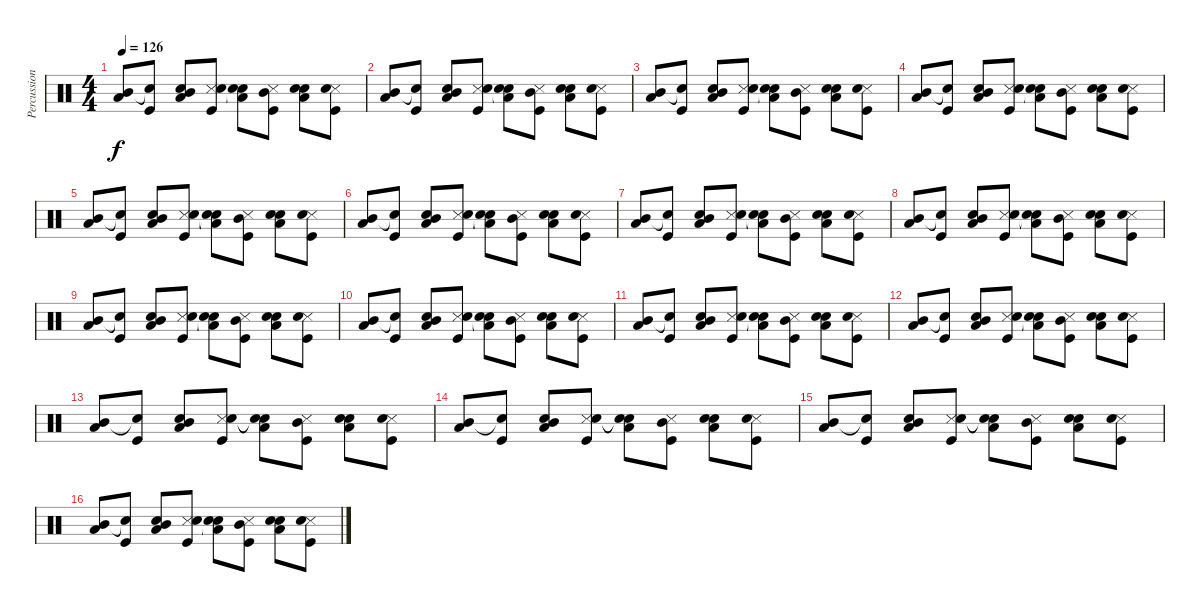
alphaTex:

\track ("Percussions" "Percussion") {instrument percussion}
\staff {score}
\articulation defaults
\ts (4 4)
\tempo 126
\clef neutral
\ks c
("Mid Tom (hit)" "Low Floor Tom (hit)").8{dy f} ("Snare (hit)"{t} "Kick (hit)").8 ("Snare (hit) 2" "Mid Tom (hit)" "Low Floor Tom (hit)").8 ("Snare (side stick) 3" "Electric Snare (hit)" "Kick (hit)").8 ("Snare (hit)"{t} "Snare (hit)"{t} "Low Floor Tom (hit)").8 ("Snare (side stick) 3" "Mid Tom (hit)" "Kick (hit)").8 ("Electric Snare (hit)" "Snare (hit) 2" "Low Floor Tom (hit)").8 ("Snare (side stick) 3" "Snare (hit) 2" "Kick (hit)").8 |
("Mid Tom (hit)" "Low Floor Tom (hit)").8 ("Snare (hit)"{t} "Kick (hit)").8 ("Snare (hit) 2" "Mid Tom (hit)" "Low Floor Tom (hit)").8 ("Snare (side stick) 3" "Electric Snare (hit)" "Kick (hit)").8 ("Snare (hit)"{t} "Snare (hit)"{t} "Low Floor Tom (hit)").8 ("Snare (side stick) 3" "Mid Tom (hit)" "Kick (hit)").8 ("Electric Snare (hit)" "Snare (hit) 2" "Low Floor Tom (hit)").8 ("Snare (side stick) 3" "Snare (hit) 2" "Kick (hit)").8 |
("Mid Tom (hit)" "Low Floor Tom (hit)").8 ("Snare (hit)"{t} "Kick (hit)").8 ("Snare (hit) 2" "Mid Tom (hit)" "Low Floor Tom (hit)").8 ("Snare (side stick) 3" "Electric Snare (hit)" "Kick (hit)").8 ("Snare (hit)"{t} "Snare (hit)"{t} "Low Floor Tom (hit)").8 ("Snare (side stick) 3" "Mid Tom (hit)" "Kick (hit)").8 ("Electric Snare (hit)" "Snare (hit) 2" "Low Floor Tom (hit)").8 ("Snare (side stick) 3" "Snare (hit) 2" "Kick (hit)").8 |
("Mid Tom (hit)" "Low Floor Tom (hit)").8 ("Snare (hit)"{t} "Kick (hit)").8 ("Snare (hit) 2" "Mid Tom (hit)" "Low Floor Tom (hit)").8 ("Snare (side stick) 3" "Electric Snare (hit)" "Kick (hit)").8 ("Snare (hit)"{t} "Snare (hit)"{t} "Low Floor Tom (hit)").8 ("Snare (side stick) 3" "Mid Tom (hit)" "Kick (hit)").8 ("Electric Snare (hit)" "Snare (hit) 2" "Low Floor Tom (hit)").8 ("Snare (side stick) 3" "Snare (hit) 2" "Kick (hit)").8 |
("Mid Tom (hit)" "Low Floor Tom (hit)").8 ("Snare (hit)"{t} "Kick (hit)").8 ("Snare (hit) 2" "Mid Tom (hit)" "Low Floor Tom (hit)").8 ("Snare (side stick) 3" "Electric Snare (hit)" "Kick (hit)").8 ("Snare (hit)"{t} "Snare (hit)"{t} "Low Floor Tom (hit)").8 ("Snare (side stick) 3" "Mid Tom (hit)" "Kick (hit)").8 ("Electric Snare (hit)" "Snare (hit) 2" "Low Floor Tom (hit)").8 ("Snare (side stick) 3" "Snare (hit) 2" "Kick (hit)").8 |
("Mid Tom (hit)" "Low Floor Tom (hit)").8 ("Snare (hit)"{t} "Kick (hit)").8 ("Snare (hit) 2" "Mid Tom (hit)" "Low Floor Tom (hit)").8 ("Snare (side stick) 3" "Electric Snare (hit)" "Kick (hit)").8 ("Snare (hit)"{t} "Snare (hit)"{t} "Low Floor Tom (hit)").8 ("Snare (side stick) 3" "Mid Tom (hit)" "Kick (hit)").8 ("Electric Snare (hit)" "Snare (hit) 2" "Low Floor Tom (hit)").8 ("Snare (side stick) 3" "Snare (hit) 2" "Kick (hit)").8 |
("Mid Tom (hit)" "Low Floor Tom (hit)").8 ("Snare (hit)"{t} "Kick (hit)").8 ("Snare (hit) 2" "Mid Tom (hit)" "Low Floor Tom (hit)").8 ("Snare (side stick) 3" "Electric Snare (hit)" "Kick (hit)").8 ("Snare (hit)"{t} "Snare (hit)"{t} "Low Floor Tom (hit)").8 ("Snare (side stick) 3" "Mid Tom (hit)" "Kick (hit)").8 ("Electric Snare (hit)" "Snare (hit) 2" "Low Floor Tom (hit)").8 ("Snare (side stick) 3" "Snare (hit) 2" "Kick (hit)").8 |
("Mid Tom (hit)" "Low Floor Tom (hit)").8 ("Snare (hit)"{t} "Kick (hit)").8 ("Snare (hit) 2" "Mid Tom (hit)" "Low Floor Tom (hit)").8 ("Snare (side stick) 3" "Electric Snare (hit)" "Kick (hit)").8 ("Snare (hit)"{t} "Snare (hit)"{t} "Low Floor Tom (hit)").8 ("Snare (side stick) 3" "Mid Tom (hit)" "Kick (hit)").8 ("Electric Snare (hit)" "Snare (hit) 2" "Low Floor Tom (hit)").8 ("Snare (side stick) 3" "Snare (hit) 2" "Kick (hit)").8 |
("Mid Tom (hit)" "Low Floor Tom (hit)").8 ("Snare (hit)"{t} "Kick (hit)").8 ("Snare (hit) 2" "Mid Tom (hit)" "Low Floor Tom (hit)").8 ("Snare (side stick) 3" "Electric Snare (hit)" "Kick (hit)").8 ("Snare (hit)"{t} "Snare (hit)"{t} "Low Floor Tom (hit)").8 ("Snare (side stick) 3" "Mid Tom (hit)" "Kick (hit)").8 ("Electric Snare (hit)" "Snare (hit) 2" "Low Floor Tom (hit)").8 ("Snare (side stick) 3" "Snare (hit) 2" "Kick (hit)").8 |
("Mid Tom (hit)" "Low Floor Tom (hit)").8 ("Snare (hit)"{t} "Kick (hit)").8 ("Snare (hit) 2" "Mid Tom (hit)" "Low Floor Tom (hit)").8 ("Snare (side stick) 3" "Electric Snare (hit)" "Kick (hit)").8 ("Snare (hit)"{t} "Snare (hit)"{t} "Low Floor Tom (hit)").8 ("Snare (side stick) 3" "Mid Tom (hit)" "Kick (hit)").8 ("Electric Snare (hit)" "Snare (hit) 2" "Low Floor Tom (hit)").8 ("Snare (side stick) 3" "Snare (hit) 2" "Kick (hit)").8 |
("Mid Tom (hit)" "Low Floor Tom (hit)").8 ("Snare (hit)"{t} "Kick (hit)").8 ("Snare (hit) 2" "Mid Tom (hit)" "Low Floor Tom (hit)").8 ("Snare (side stick) 3" "Electric Snare (hit)" "Kick (hit)").8 ("Snare (hit)"{t} "Snare (hit)"{t} "Low Floor Tom (hit)").8 ("Snare (side stick) 3" "Mid Tom (hit)" "Kick (hit)").8 ("Electric Snare (hit)" "Snare (hit) 2" "Low Floor Tom (hit)").8 ("Snare (side stick) 3" "Snare (hit) 2" "Kick (hit)").8 |
("Mid Tom (hit)" "Low Floor Tom (hit)").8 ("Snare (hit)"{t} "Kick (hit)").8 ("Snare (hit) 2" "Mid Tom (hit)" "Low Floor Tom (hit)").8 ("Snare (side stick) 3" "Electric Snare (hit)" "Kick (hit)").8 ("Snare (hit)"{t} "Snare (hit)"{t} "Low Floor Tom (hit)").8 ("Snare (side stick) 3" "Mid Tom (hit)" "Kick (hit)").8 ("Electric Snare (hit)" "Snare (hit) 2" "Low Floor Tom (hit)").8 ("Snare (side stick) 3" "Snare (hit) 2" "Kick (hit)").8 |
("Mid Tom (hit)" "Low Floor Tom (hit)").8 ("Snare (hit)"{t} "Kick (hit)").8 ("Snare (hit) 2" "Mid Tom (hit)" "Low Floor Tom (hit)").8 ("Snare (side stick) 3" "Electric Snare (hit)" "Kick (hit)").8 ("Snare (hit)"{t} "Snare (hit)"{t} "Low Floor Tom (hit)").8 ("Snare (side stick) 3" "Mid Tom (hit)" "Kick (hit)").8 ("Electric Snare (hit)" "Snare (hit) 2" "Low Floor Tom (hit)").8 ("Snare (side stick) 3" "Snare (hit) 2" "Kick (hit)").8 |
("Mid Tom (hit)" "Low Floor Tom (hit)").8 ("Snare (hit)"{t} "Kick (hit)").8 ("Snare (hit) 2" "Mid Tom (hit)" "Low Floor Tom (hit)").8 ("Snare (side stick) 3" "Electric Snare (hit)" "Kick (hit)").8 ("Snare (hit)"{t} "Snare (hit)"{t} "Low Floor Tom (hit)").8 ("Snare (side stick) 3" "Mid Tom (hit)" "Kick (hit)").8 ("Electric Snare (hit)" "Snare (hit) 2" "Low Floor Tom (hit)").8 ("Snare (side stick) 3" "Snare (hit) 2" "Kick (hit)").8 |
("Mid Tom (hit)" "Low Floor Tom (hit)").8 ("Snare (hit)"{t} "Kick (hit)").8 ("Snare (hit) 2" "Mid Tom (hit)" "Low Floor Tom (hit)").8 ("Snare (side stick) 3" "Electric Snare (hit)" "Kick (hit)").8 ("Snare (hit)"{t} "Snare (hit)"{t} "Low Floor Tom (hit)").8 ("Snare (side stick) 3" "Mid Tom (hit)" "Kick (hit)").8 ("Electric Snare (hit)" "Snare (hit) 2" "Low Floor Tom (hit)").8 ("Snare (side stick) 3" "Snare (hit) 2" "Kick (hit)").8 |
("Mid Tom (hit)" "Low Floor Tom (hit)").8 ("Snare (hit)"{t} "Kick (hit)").8 ("Snare (hit) 2" "Mid Tom (hit)" "Low Floor Tom (hit)").8 ("Snare (side stick) 3" "Electric Snare (hit)" "Kick (hit)").8 ("Snare (hit)"{t} "Snare (hit)"{t} "Low Floor Tom (hit)").8 ("Snare (side stick) 3" "Mid Tom (hit)" "Kick (hit)").8 ("Electric Snare (hit)" "Snare (hit) 2" "Low Floor Tom (hit)").8 ("Snare (side stick) 3" "Snare (hit) 2" "Kick (hit)").8
